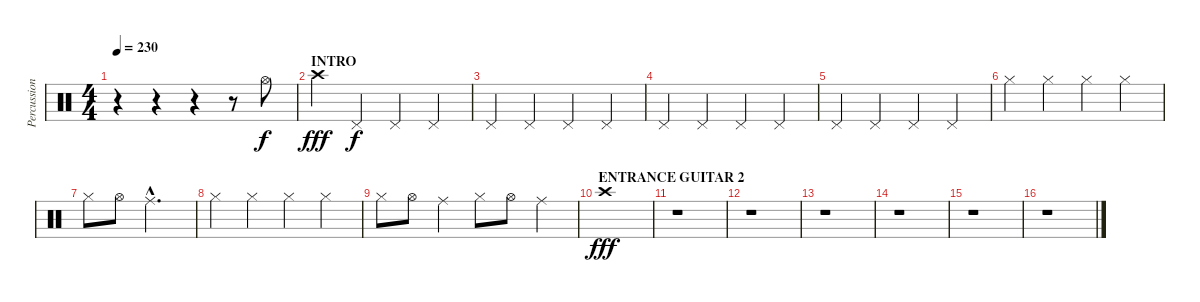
\track ("Percussions" "Percussion") {instrument percussion}
\staff {score}
\articulation defaults
\ts (4 4)
\tempo 230
\tempo 204
\tempo 230
\clef neutral
\ks c
r.4{dy f} r.4 r.4 r.8 "Hi-Hat (open)".8 |
\section ("" "INTRO")
"Crash high (hit)".4{dy fff} "Pedal Hi-Hat (hit)".4{dy f} "Pedal Hi-Hat (hit)".4 "Pedal Hi-Hat (hit)".4 |
"Pedal Hi-Hat (hit)".4 "Pedal Hi-Hat (hit)".4 "Pedal Hi-Hat (hit)".4 "Pedal Hi-Hat (hit)".4 |
"Pedal Hi-Hat (hit)".4 "Pedal Hi-Hat (hit)".4 "Pedal Hi-Hat (hit)".4 "Pedal Hi-Hat (hit)".4 |
"Pedal Hi-Hat (hit)".4 "Pedal Hi-Hat (hit)".4 "Pedal Hi-Hat (hit)".4 "Pedal Hi-Hat (hit)".4 |
"Hi-Hat (closed)".4 "Hi-Hat (closed)".4 "Hi-Hat (closed)".4 "Hi-Hat (closed)".4 |
"Hi-Hat (closed)".8 "Hi-Hat (open)".8 "Ride (middle)"{hac}.2{d} |
"Hi-Hat (closed)".4 "Hi-Hat (closed)".4 "Hi-Hat (closed)".4 "Hi-Hat (closed)".4 |
"Hi-Hat (closed)".8 "Hi-Hat (open)".8 "Ride (middle)".4 "Hi-Hat (closed)".8 "Hi-Hat (open)".8 "Ride (middle)".4 |
\section ("" "ENTRANCE GUITAR 2")
"Crash high (hit)".1{dy fff} |
r.1 |
r.1 |
r.1 |
r.1 |
r.1 |
r.1
